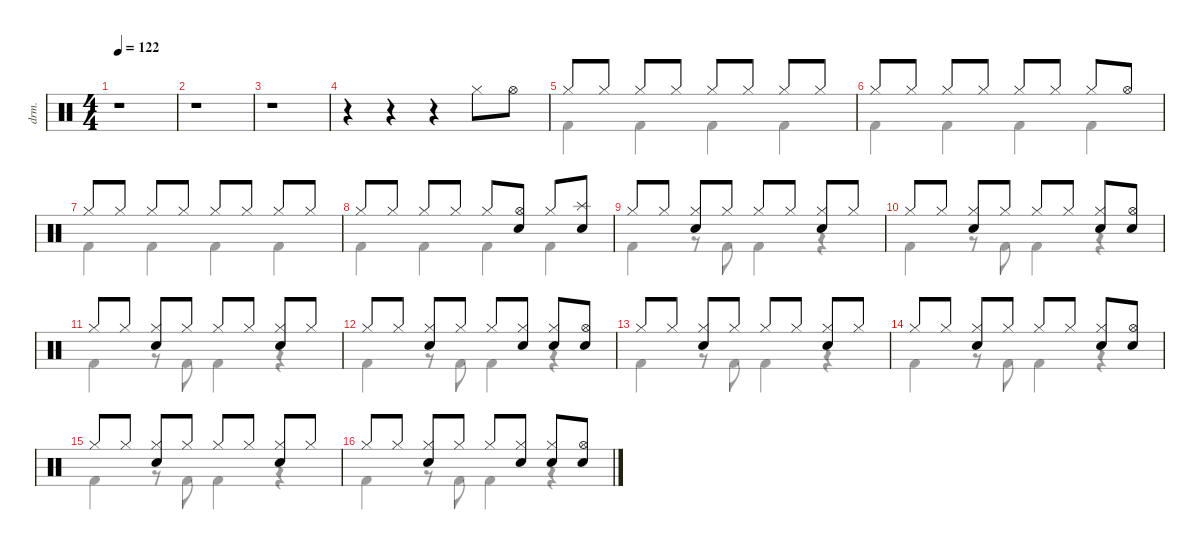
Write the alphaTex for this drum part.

\defaultSystemsLayout 4
\hideDynamics
\bracketExtendMode nobrackets
\track ("Drumkit" "drm.") {defaultSystemsLayout 4 instrument percussion}
\staff {score}
\articulation defaults
\voice
\ts (4 4)
\tempo 122
\clef neutral
\ks c
r.1{dy mf beam Down} |
r.1{beam Down} |
r.1{beam Down} |
r.4{beam Down} r.4{beam Down} r.4{beam Down} "Hi-Hat (closed)".8{beam Down} "Hi-Hat (open)".8{beam Down} |
"Hi-Hat (closed)".8{beam Up} "Hi-Hat (closed)".8{beam Up} "Hi-Hat (closed)".8{beam Up} "Hi-Hat (closed)".8{beam Up} "Hi-Hat (closed)".8{beam Up} "Hi-Hat (closed)".8{beam Up} "Hi-Hat (closed)".8{beam Up} "Hi-Hat (closed)".8{beam Up} |
"Hi-Hat (closed)".8{beam Up} "Hi-Hat (closed)".8{beam Up} "Hi-Hat (closed)".8{beam Up} "Hi-Hat (closed)".8{beam Up} "Hi-Hat (closed)".8{beam Up} "Hi-Hat (closed)".8{beam Up} "Hi-Hat (closed)".8{beam Up} "Hi-Hat (open)".8{beam Up} |
"Hi-Hat (closed)".8{beam Up} "Hi-Hat (closed)".8{beam Up} "Hi-Hat (closed)".8{beam Up} "Hi-Hat (closed)".8{beam Up} "Hi-Hat (closed)".8{beam Up} "Hi-Hat (closed)".8{beam Up} "Hi-Hat (closed)".8{beam Up} "Hi-Hat (closed)".8{beam Up} |
"Hi-Hat (closed)".8{beam Up} "Hi-Hat (closed)".8{beam Up} "Hi-Hat (closed)".8{beam Up} "Hi-Hat (closed)".8{beam Up} "Hi-Hat (closed)".8{beam Up} ("Hi-Hat (open)" "Snare (hit) 2").8{beam Up} "Hi-Hat (closed)".8{beam Up} ("Splash (hit)" "Snare (hit) 2").8{beam Up} |
"Hi-Hat (closed)".8{beam Up} "Hi-Hat (closed)".8{beam Up} ("Hi-Hat (closed)" "Snare (hit) 2").8{beam Up} "Hi-Hat (closed)".8{beam Up} "Hi-Hat (closed)".8{beam Up} "Hi-Hat (closed)".8{beam Up} ("Hi-Hat (closed)" "Snare (hit) 2").8{beam Up} "Hi-Hat (closed)".8{beam Up} |
"Hi-Hat (closed)".8{beam Up} "Hi-Hat (closed)".8{beam Up} ("Hi-Hat (closed)" "Snare (hit) 2").8{beam Up} "Hi-Hat (closed)".8{beam Up} "Hi-Hat (closed)".8{beam Up} "Hi-Hat (closed)".8{beam Up} ("Hi-Hat (closed)" "Snare (hit) 2").8{beam Up} ("Hi-Hat (open)" "Snare (hit) 2").8{beam Up} |
"Hi-Hat (closed)".8{beam Up} "Hi-Hat (closed)".8{beam Up} ("Hi-Hat (closed)" "Snare (hit) 2").8{beam Up} "Hi-Hat (closed)".8{beam Up} "Hi-Hat (closed)".8{beam Up} "Hi-Hat (closed)".8{beam Up} ("Hi-Hat (closed)" "Snare (hit) 2").8{beam Up} "Hi-Hat (closed)".8{beam Up} |
"Hi-Hat (closed)".8{beam Up} "Hi-Hat (closed)".8{beam Up} ("Hi-Hat (closed)" "Snare (hit) 2").8{beam Up} "Hi-Hat (closed)".8{beam Up} "Hi-Hat (closed)".8{beam Up} ("Hi-Hat (closed)" "Snare (hit) 2").8{beam Up} ("Hi-Hat (closed)" "Snare (hit) 2").8{beam Up} ("Hi-Hat (open)" "Snare (hit) 2").8{beam Up} |
"Hi-Hat (closed)".8{beam Up} "Hi-Hat (closed)".8{beam Up} ("Hi-Hat (closed)" "Snare (hit) 2").8{beam Up} "Hi-Hat (closed)".8{beam Up} "Hi-Hat (closed)".8{beam Up} "Hi-Hat (closed)".8{beam Up} ("Hi-Hat (closed)" "Snare (hit) 2").8{beam Up} "Hi-Hat (closed)".8{beam Up} |
"Hi-Hat (closed)".8{beam Up} "Hi-Hat (closed)".8{beam Up} ("Hi-Hat (closed)" "Snare (hit) 2").8{beam Up} "Hi-Hat (closed)".8{beam Up} "Hi-Hat (closed)".8{beam Up} "Hi-Hat (closed)".8{beam Up} ("Hi-Hat (closed)" "Snare (hit) 2").8{beam Up} ("Hi-Hat (open)" "Snare (hit) 2").8{beam Up} |
"Hi-Hat (closed)".8{beam Up} "Hi-Hat (closed)".8{beam Up} ("Hi-Hat (closed)" "Snare (hit) 2").8{beam Up} "Hi-Hat (closed)".8{beam Up} "Hi-Hat (closed)".8{beam Up} "Hi-Hat (closed)".8{beam Up} ("Hi-Hat (closed)" "Snare (hit) 2").8{beam Up} "Hi-Hat (closed)".8{beam Up} |
"Hi-Hat (closed)".8{beam Up} "Hi-Hat (closed)".8{beam Up} ("Hi-Hat (closed)" "Snare (hit) 2").8{beam Up} "Hi-Hat (closed)".8{beam Up} "Hi-Hat (closed)".8{beam Up} ("Hi-Hat (closed)" "Snare (hit) 2").8{beam Up} ("Hi-Hat (closed)" "Snare (hit) 2").8{beam Up} ("Hi-Hat (open)" "Snare (hit) 2").8{beam Up}
\voice
\clef neutral
\ottava regular
\simile none
\ks c
|
|
|
|
|
|
|
|
|
|
|
|
|
|
|
\voice
\clef neutral
\ottava regular
\simile none
\ks c
|
|
|
|
"Kick (hit) 2".4{beam Down} "Kick (hit) 2".4{beam Down} "Kick (hit) 2".4{beam Down} "Kick (hit) 2".4{beam Down} |
"Kick (hit) 2".4{beam Down} "Kick (hit) 2".4{beam Down} "Kick (hit) 2".4{beam Down} "Kick (hit) 2".4{beam Down} |
"Kick (hit) 2".4{beam Down} "Kick (hit) 2".4{beam Down} "Kick (hit) 2".4{beam Down} "Kick (hit) 2".4{beam Down} |
"Kick (hit) 2".4{beam Down} "Kick (hit) 2".4{beam Down} "Kick (hit) 2".4{beam Down} "Kick (hit) 2".4{beam Down} |
"Kick (hit) 2".4{beam Down} r.8{beam Down} "Kick (hit) 2".8{beam Down} "Kick (hit) 2".4{beam Down} r.4{beam Down} |
"Kick (hit) 2".4{beam Down} r.8{beam Down} "Kick (hit) 2".8{beam Down} "Kick (hit) 2".4{beam Down} r.4{beam Down} |
"Kick (hit) 2".4{beam Down} r.8{beam Down} "Kick (hit) 2".8{beam Down} "Kick (hit) 2".4{beam Down} r.4{beam Down} |
"Kick (hit) 2".4{beam Down} r.8{beam Down} "Kick (hit) 2".8{beam Down} "Kick (hit) 2".4{beam Down} r.4{beam Down} |
"Kick (hit) 2".4{beam Down} r.8{beam Down} "Kick (hit) 2".8{beam Down} "Kick (hit) 2".4{beam Down} r.4{beam Down} |
"Kick (hit) 2".4{beam Down} r.8{beam Down} "Kick (hit) 2".8{beam Down} "Kick (hit) 2".4{beam Down} r.4{beam Down} |
"Kick (hit) 2".4{beam Down} r.8{beam Down} "Kick (hit) 2".8{beam Down} "Kick (hit) 2".4{beam Down} r.4{beam Down} |
"Kick (hit) 2".4{beam Down} r.8{beam Down} "Kick (hit) 2".8{beam Down} "Kick (hit) 2".4{beam Down} r.4{beam Down}
